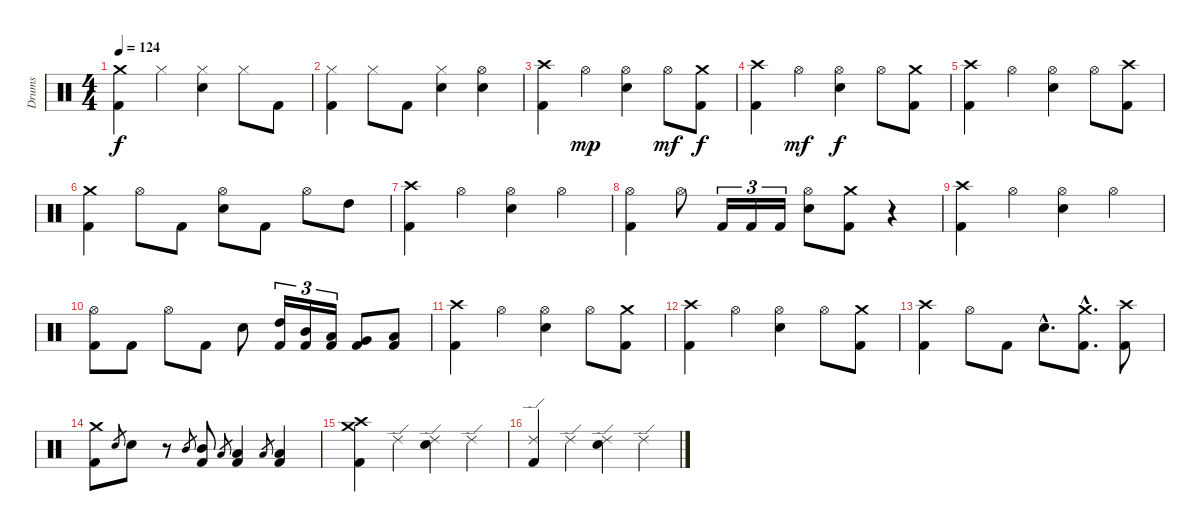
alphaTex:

\track ("Drums" "Drums") {instrument percussion}
\staff {score}
\articulation defaults
\ts (4 4)
\tempo 124
\clef neutral
\ks c
("Kick (hit) 2" "Crash medium (hit)").4{dy f} "Hi-Hat (closed)".4 ("Electric Snare (hit)" "Hi-Hat (closed)").4 "Hi-Hat (closed)".8 "Kick (hit) 2".8 |
("Kick (hit) 2" "Hi-Hat (closed)").4 "Hi-Hat (closed)".8 "Kick (hit) 2".8 ("Electric Snare (hit)" "Hi-Hat (closed)").4 ("Electric Snare (hit)" "Hi-Hat (open)").4 |
\section ("" "")
("Kick (hit) 2" "Crash high (hit)").4 "Hi-Hat (open)".4{dy mp} ("Electric Snare (hit)" "Hi-Hat (open)").4 "Hi-Hat (open)".8{dy mf} ("Kick (hit) 2" "Crash medium (hit)").8{dy f} |
("Kick (hit) 2" "Crash high (hit)").4 "Hi-Hat (open)".4{dy mf} ("Electric Snare (hit)" "Hi-Hat (open)").4{dy f} "Hi-Hat (open)".8 ("Kick (hit) 2" "Crash medium (hit)").8 |
("Kick (hit) 2" "Crash high (hit)").4 "Hi-Hat (open)".4 ("Electric Snare (hit)" "Hi-Hat (open)").4 "Hi-Hat (open)".8 ("Kick (hit) 2" "Crash high (hit)").8 |
("Kick (hit) 2" "Crash medium (hit)").4 "Hi-Hat (open)".8 "Kick (hit) 2".8 ("Electric Snare (hit)" "Hi-Hat (open)").8 "Kick (hit) 2".8 "Hi-Hat (open)".8 "High Tom (hit)".8 |
("Kick (hit) 2" "Crash high (hit)").4 "Hi-Hat (open)".4 ("Electric Snare (hit)" "Hi-Hat (open)").4 "Hi-Hat (open)".4 |
("Kick (hit) 2" "Hi-Hat (open)").4 "Hi-Hat (open)".8 "Kick (hit) 2".16{tu (3 2)} "Kick (hit) 2".16{tu (3 2)} "Kick (hit) 2".16{tu (3 2)} ("Electric Snare (hit)" "Hi-Hat (open)").8 ("Kick (hit) 2" "Crash medium (hit)").8 r.4 |
("Kick (hit) 2" "Crash high (hit)").4 "Hi-Hat (open)".4 ("Electric Snare (hit)" "Hi-Hat (open)").4 "Hi-Hat (open)".4 |
("Kick (hit) 2" "Hi-Hat (open)").8 "Kick (hit) 2".8 "Hi-Hat (open)".8 "Kick (hit) 2".8 "Electric Snare (hit)".8 ("Kick (hit) 2" "High Tom (hit)").16{tu (3 2)} ("Kick (hit) 2" "Mid Tom (hit)").16{tu (3 2)} ("Kick (hit) 2" "Low Tom (hit)").16{tu (3 2)} ("Kick (hit) 2" "Very Low Tom (hit)").8 ("Kick (hit) 2" "Low Floor Tom (hit)").8 |
("Kick (hit) 2" "Crash high (hit)").4 "Hi-Hat (open)".4 ("Electric Snare (hit)" "Hi-Hat (open)").4 "Hi-Hat (open)".8 ("Kick (hit) 2" "Crash medium (hit)").8 |
("Kick (hit) 2" "Crash high (hit)").4 "Hi-Hat (open)".4 ("Electric Snare (hit)" "Hi-Hat (open)").4 "Hi-Hat (open)".8 ("Kick (hit) 2" "Crash medium (hit)").8 |
("Kick (hit) 2" "Crash high (hit)").4 "Hi-Hat (open)".8 "Kick (hit) 2".8 "Electric Snare (hit)"{hac}.8{d} ("Kick (hit) 2"{hac} "Crash medium (hit)"{hac}).8{d} ("Kick (hit) 2" "Crash high (hit)").8 |
("Kick (hit) 2" "Crash medium (hit)").8 "Electric Snare (hit)".8{gr} "Electric Snare (hit)".8 r.8 "Mid Tom (hit)".8{gr} ("Kick (hit) 2" "Mid Tom (hit)").8 "Low Tom (hit)".8{gr} ("Kick (hit) 2" "Low Tom (hit)").4 "Low Floor Tom (hit)".8{gr} ("Kick (hit) 2" "Low Floor Tom (hit)").4 |
\section ("" "")
("Kick (hit) 2" "Crash medium (hit)" "Crash high (hit)").4 "Ride (edge) 2".4 ("Electric Snare (hit)" "Ride (edge) 2").4 "Ride (edge) 2".4 |
("Kick (hit) 2" "Ride (edge) 2").4 "Ride (edge) 2".4 ("Electric Snare (hit)" "Ride (edge) 2").4 "Ride (edge) 2".4
